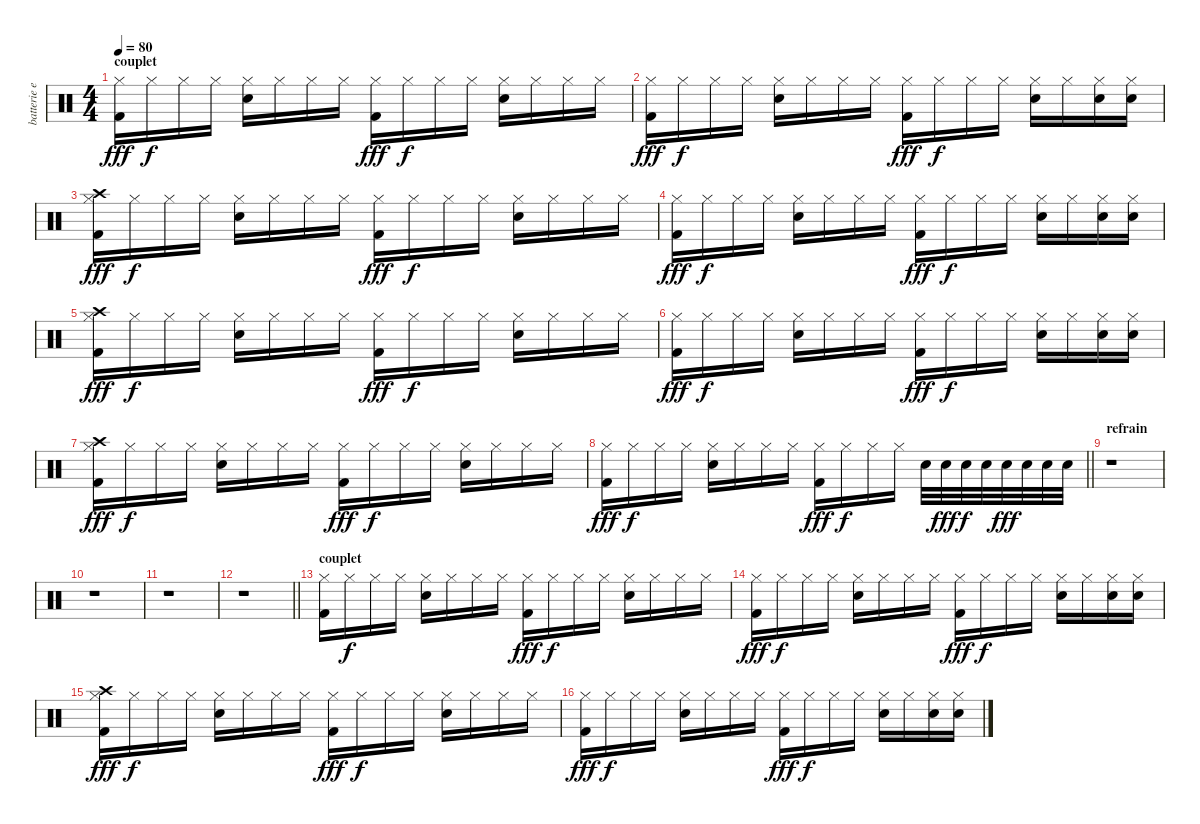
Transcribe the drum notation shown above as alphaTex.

\track ("batterie eti" "batterie e") {instrument percussion}
\staff {score}
\articulation defaults
\ts (4 4)
\section ("" "couplet")
\tempo 80
\clef neutral
\ks c
("Hi-Hat (closed)" "Kick (hit) 2").16{dy fff} "Hi-Hat (closed)".16{dy f} "Hi-Hat (closed)".16 "Hi-Hat (closed)".16 ("Hi-Hat (closed)" "Electric Snare (hit)").16 "Hi-Hat (closed)".16 "Hi-Hat (closed)".16 "Hi-Hat (closed)".16 ("Hi-Hat (closed)" "Kick (hit) 2").16{dy fff} "Hi-Hat (closed)".16{dy f} "Hi-Hat (closed)".16 "Hi-Hat (closed)".16 ("Hi-Hat (closed)" "Electric Snare (hit)").16 "Hi-Hat (closed)".16 "Hi-Hat (closed)".16 "Hi-Hat (closed)".16 |
("Hi-Hat (closed)" "Kick (hit) 2").16{dy fff} "Hi-Hat (closed)".16{dy f} "Hi-Hat (closed)".16 "Hi-Hat (closed)".16 ("Hi-Hat (closed)" "Electric Snare (hit)").16 "Hi-Hat (closed)".16 "Hi-Hat (closed)".16 "Hi-Hat (closed)".16 ("Hi-Hat (closed)" "Kick (hit) 2").16{dy fff} "Hi-Hat (closed)".16{dy f} "Hi-Hat (closed)".16 "Hi-Hat (closed)".16 ("Hi-Hat (closed)" "Electric Snare (hit)").16 "Hi-Hat (closed)".16 ("Hi-Hat (closed)" "Electric Snare (hit)").16 ("Hi-Hat (closed)" "Electric Snare (hit)").16 |
("Crash high (hit)" "Hi-Hat (closed)" "Kick (hit) 2").16{dy fff} "Hi-Hat (closed)".16{dy f} "Hi-Hat (closed)".16 "Hi-Hat (closed)".16 ("Hi-Hat (closed)" "Electric Snare (hit)").16 "Hi-Hat (closed)".16 "Hi-Hat (closed)".16 "Hi-Hat (closed)".16 ("Hi-Hat (closed)" "Kick (hit) 2").16{dy fff} "Hi-Hat (closed)".16{dy f} "Hi-Hat (closed)".16 "Hi-Hat (closed)".16 ("Hi-Hat (closed)" "Electric Snare (hit)").16 "Hi-Hat (closed)".16 "Hi-Hat (closed)".16 "Hi-Hat (closed)".16 |
("Hi-Hat (closed)" "Kick (hit) 2").16{dy fff} "Hi-Hat (closed)".16{dy f} "Hi-Hat (closed)".16 "Hi-Hat (closed)".16 ("Hi-Hat (closed)" "Electric Snare (hit)").16 "Hi-Hat (closed)".16 "Hi-Hat (closed)".16 "Hi-Hat (closed)".16 ("Hi-Hat (closed)" "Kick (hit) 2").16{dy fff} "Hi-Hat (closed)".16{dy f} "Hi-Hat (closed)".16 "Hi-Hat (closed)".16 ("Hi-Hat (closed)" "Electric Snare (hit)").16 "Hi-Hat (closed)".16 ("Hi-Hat (closed)" "Electric Snare (hit)").16 ("Hi-Hat (closed)" "Electric Snare (hit)").16 |
("Crash high (hit)" "Hi-Hat (closed)" "Kick (hit) 2").16{dy fff} "Hi-Hat (closed)".16{dy f} "Hi-Hat (closed)".16 "Hi-Hat (closed)".16 ("Hi-Hat (closed)" "Electric Snare (hit)").16 "Hi-Hat (closed)".16 "Hi-Hat (closed)".16 "Hi-Hat (closed)".16 ("Hi-Hat (closed)" "Kick (hit) 2").16{dy fff} "Hi-Hat (closed)".16{dy f} "Hi-Hat (closed)".16 "Hi-Hat (closed)".16 ("Hi-Hat (closed)" "Electric Snare (hit)").16 "Hi-Hat (closed)".16 "Hi-Hat (closed)".16 "Hi-Hat (closed)".16 |
("Hi-Hat (closed)" "Kick (hit) 2").16{dy fff} "Hi-Hat (closed)".16{dy f} "Hi-Hat (closed)".16 "Hi-Hat (closed)".16 ("Hi-Hat (closed)" "Electric Snare (hit)").16 "Hi-Hat (closed)".16 "Hi-Hat (closed)".16 "Hi-Hat (closed)".16 ("Hi-Hat (closed)" "Kick (hit) 2").16{dy fff} "Hi-Hat (closed)".16{dy f} "Hi-Hat (closed)".16 "Hi-Hat (closed)".16 ("Hi-Hat (closed)" "Electric Snare (hit)").16 "Hi-Hat (closed)".16 ("Hi-Hat (closed)" "Electric Snare (hit)").16 ("Hi-Hat (closed)" "Electric Snare (hit)").16 |
("Crash high (hit)" "Hi-Hat (closed)" "Kick (hit) 2").16{dy fff} "Hi-Hat (closed)".16{dy f} "Hi-Hat (closed)".16 "Hi-Hat (closed)".16 ("Hi-Hat (closed)" "Electric Snare (hit)").16 "Hi-Hat (closed)".16 "Hi-Hat (closed)".16 "Hi-Hat (closed)".16 ("Hi-Hat (closed)" "Kick (hit) 2").16{dy fff} "Hi-Hat (closed)".16{dy f} "Hi-Hat (closed)".16 "Hi-Hat (closed)".16 ("Hi-Hat (closed)" "Electric Snare (hit)").16 "Hi-Hat (closed)".16 "Hi-Hat (closed)".16 "Hi-Hat (closed)".16 |
\barLineRight lightlight
("Hi-Hat (closed)" "Kick (hit) 2").16{dy fff} "Hi-Hat (closed)".16{dy f} "Hi-Hat (closed)".16 "Hi-Hat (closed)".16 ("Hi-Hat (closed)" "Electric Snare (hit)").16 "Hi-Hat (closed)".16 "Hi-Hat (closed)".16 "Hi-Hat (closed)".16 ("Hi-Hat (closed)" "Kick (hit) 2").16{dy fff} "Hi-Hat (closed)".16{dy f} "Hi-Hat (closed)".16 "Hi-Hat (closed)".16 "Electric Snare (hit)".32 "Electric Snare (hit)".32{dy fff} "Electric Snare (hit)".32{dy f} "Electric Snare (hit)".32 "Electric Snare (hit)".32{dy fff} "Electric Snare (hit)".32 "Electric Snare (hit)".32 "Electric Snare (hit)".32 |
\section ("" "refrain")
r.1 |
r.1 |
r.1 |
\barLineRight lightlight
r.1 |
\section ("" "couplet")
("Hi-Hat (closed)" "Kick (hit) 2").16 "Hi-Hat (closed)".16{dy f} "Hi-Hat (closed)".16 "Hi-Hat (closed)".16 ("Hi-Hat (closed)" "Electric Snare (hit)").16 "Hi-Hat (closed)".16 "Hi-Hat (closed)".16 "Hi-Hat (closed)".16 ("Hi-Hat (closed)" "Kick (hit) 2").16{dy fff} "Hi-Hat (closed)".16{dy f} "Hi-Hat (closed)".16 "Hi-Hat (closed)".16 ("Hi-Hat (closed)" "Electric Snare (hit)").16 "Hi-Hat (closed)".16 "Hi-Hat (closed)".16 "Hi-Hat (closed)".16 |
("Hi-Hat (closed)" "Kick (hit) 2").16{dy fff} "Hi-Hat (closed)".16{dy f} "Hi-Hat (closed)".16 "Hi-Hat (closed)".16 ("Hi-Hat (closed)" "Electric Snare (hit)").16 "Hi-Hat (closed)".16 "Hi-Hat (closed)".16 "Hi-Hat (closed)".16 ("Hi-Hat (closed)" "Kick (hit) 2").16{dy fff} "Hi-Hat (closed)".16{dy f} "Hi-Hat (closed)".16 "Hi-Hat (closed)".16 ("Hi-Hat (closed)" "Electric Snare (hit)").16 "Hi-Hat (closed)".16 ("Hi-Hat (closed)" "Electric Snare (hit)").16 ("Hi-Hat (closed)" "Electric Snare (hit)").16 |
("Crash high (hit)" "Hi-Hat (closed)" "Kick (hit) 2").16{dy fff} "Hi-Hat (closed)".16{dy f} "Hi-Hat (closed)".16 "Hi-Hat (closed)".16 ("Hi-Hat (closed)" "Electric Snare (hit)").16 "Hi-Hat (closed)".16 "Hi-Hat (closed)".16 "Hi-Hat (closed)".16 ("Hi-Hat (closed)" "Kick (hit) 2").16{dy fff} "Hi-Hat (closed)".16{dy f} "Hi-Hat (closed)".16 "Hi-Hat (closed)".16 ("Hi-Hat (closed)" "Electric Snare (hit)").16 "Hi-Hat (closed)".16 "Hi-Hat (closed)".16 "Hi-Hat (closed)".16 |
("Hi-Hat (closed)" "Kick (hit) 2").16{dy fff} "Hi-Hat (closed)".16{dy f} "Hi-Hat (closed)".16 "Hi-Hat (closed)".16 ("Hi-Hat (closed)" "Electric Snare (hit)").16 "Hi-Hat (closed)".16 "Hi-Hat (closed)".16 "Hi-Hat (closed)".16 ("Hi-Hat (closed)" "Kick (hit) 2").16{dy fff} "Hi-Hat (closed)".16{dy f} "Hi-Hat (closed)".16 "Hi-Hat (closed)".16 ("Hi-Hat (closed)" "Electric Snare (hit)").16 "Hi-Hat (closed)".16 ("Hi-Hat (closed)" "Electric Snare (hit)").16 ("Hi-Hat (closed)" "Electric Snare (hit)").16
